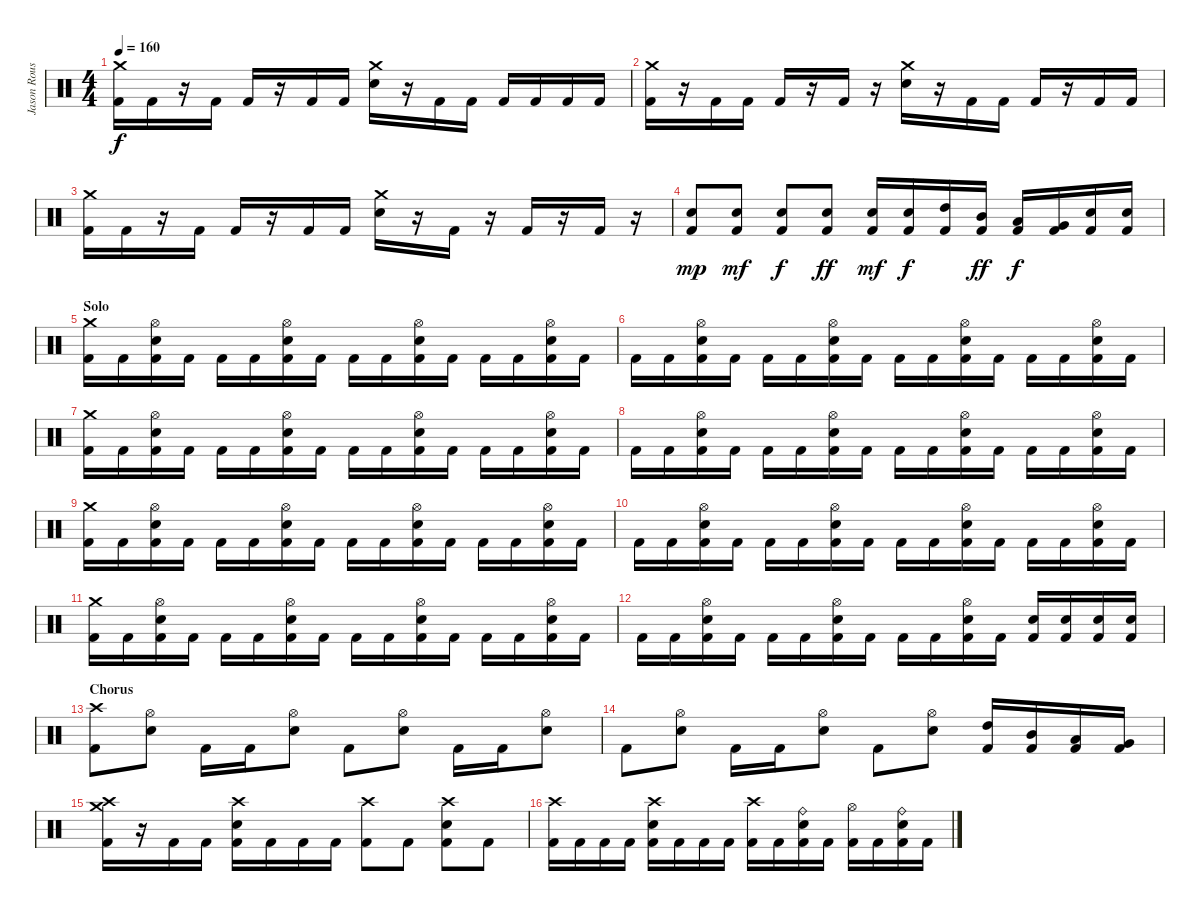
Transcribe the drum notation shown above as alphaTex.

\track ("Jason Rousseau" "Jason Rous") {instrument percussion}
\staff {score}
\articulation defaults
\ts (4 4)
\tempo 160
\clef neutral
\ks c
("Crash medium (hit)" "Kick (hit) 2").16{dy f} "Kick (hit) 2".16 r.16 "Kick (hit) 2".16 "Kick (hit) 2".16 r.16 "Kick (hit) 2".16 "Kick (hit) 2".16 ("Crash medium (hit)" "Electric Snare (hit)").16 r.16 "Kick (hit) 2".16 "Kick (hit) 2".16 "Kick (hit) 2".16 "Kick (hit) 2".16 "Kick (hit) 2".16 "Kick (hit) 2".16 |
("Crash medium (hit)" "Kick (hit) 2").16 r.16 "Kick (hit) 2".16 "Kick (hit) 2".16 "Kick (hit) 2".16 r.16 "Kick (hit) 2".16 r.16 ("Crash medium (hit)" "Electric Snare (hit)").16 r.16 "Kick (hit) 2".16 "Kick (hit) 2".16 "Kick (hit) 2".16 r.16 "Kick (hit) 2".16 "Kick (hit) 2".16 |
("Crash medium (hit)" "Kick (hit) 2").16 "Kick (hit) 2".16 r.16 "Kick (hit) 2".16 "Kick (hit) 2".16 r.16 "Kick (hit) 2".16 "Kick (hit) 2".16 ("Crash medium (hit)" "Electric Snare (hit)").16 r.16 "Kick (hit) 2".16 r.16 "Kick (hit) 2".16 r.16 "Kick (hit) 2".16 r.16 |
("Electric Snare (hit)" "Kick (hit) 2").8{dy mp} ("Electric Snare (hit)" "Kick (hit) 2").8{dy mf} ("Electric Snare (hit)" "Kick (hit) 2").8{dy f} ("Electric Snare (hit)" "Kick (hit) 2").8{dy ff} ("Electric Snare (hit)" "Kick (hit) 2").16{dy mf} ("Electric Snare (hit)" "Kick (hit) 2").16{dy f} ("High Tom (hit)" "Kick (hit) 2").16 ("Mid Tom (hit)" "Kick (hit) 2").16{dy ff} ("Low Tom (hit)" "Kick (hit) 2").16{dy f} ("Very Low Tom (hit)" "Kick (hit) 2").16 ("Electric Snare (hit)" "Kick (hit) 2").16 ("Electric Snare (hit)" "Kick (hit) 2").16 |
\section ("" "Solo")
("Crash medium (hit)" "Kick (hit) 2").16 "Kick (hit) 2".16 ("Hi-Hat (open)" "Electric Snare (hit)" "Kick (hit) 2").16 "Kick (hit) 2".16 "Kick (hit) 2".16 "Kick (hit) 2".16 ("Hi-Hat (open)" "Electric Snare (hit)" "Kick (hit) 2").16 "Kick (hit) 2".16 "Kick (hit) 2".16 "Kick (hit) 2".16 ("Hi-Hat (open)" "Electric Snare (hit)" "Kick (hit) 2").16 "Kick (hit) 2".16 "Kick (hit) 2".16 "Kick (hit) 2".16 ("Hi-Hat (open)" "Electric Snare (hit)" "Kick (hit) 2").16 "Kick (hit) 2".16 |
"Kick (hit) 2".16 "Kick (hit) 2".16 ("Hi-Hat (open)" "Electric Snare (hit)" "Kick (hit) 2").16 "Kick (hit) 2".16 "Kick (hit) 2".16 "Kick (hit) 2".16 ("Hi-Hat (open)" "Electric Snare (hit)" "Kick (hit) 2").16 "Kick (hit) 2".16 "Kick (hit) 2".16 "Kick (hit) 2".16 ("Hi-Hat (open)" "Electric Snare (hit)" "Kick (hit) 2").16 "Kick (hit) 2".16 "Kick (hit) 2".16 "Kick (hit) 2".16 ("Hi-Hat (open)" "Electric Snare (hit)" "Kick (hit) 2").16 "Kick (hit) 2".16 |
("Crash medium (hit)" "Kick (hit) 2").16 "Kick (hit) 2".16 ("Hi-Hat (open)" "Electric Snare (hit)" "Kick (hit) 2").16 "Kick (hit) 2".16 "Kick (hit) 2".16 "Kick (hit) 2".16 ("Hi-Hat (open)" "Electric Snare (hit)" "Kick (hit) 2").16 "Kick (hit) 2".16 "Kick (hit) 2".16 "Kick (hit) 2".16 ("Hi-Hat (open)" "Electric Snare (hit)" "Kick (hit) 2").16 "Kick (hit) 2".16 "Kick (hit) 2".16 "Kick (hit) 2".16 ("Hi-Hat (open)" "Electric Snare (hit)" "Kick (hit) 2").16 "Kick (hit) 2".16 |
"Kick (hit) 2".16 "Kick (hit) 2".16 ("Hi-Hat (open)" "Electric Snare (hit)" "Kick (hit) 2").16 "Kick (hit) 2".16 "Kick (hit) 2".16 "Kick (hit) 2".16 ("Hi-Hat (open)" "Electric Snare (hit)" "Kick (hit) 2").16 "Kick (hit) 2".16 "Kick (hit) 2".16 "Kick (hit) 2".16 ("Hi-Hat (open)" "Electric Snare (hit)" "Kick (hit) 2").16 "Kick (hit) 2".16 "Kick (hit) 2".16 "Kick (hit) 2".16 ("Hi-Hat (open)" "Electric Snare (hit)" "Kick (hit) 2").16 "Kick (hit) 2".16 |
("Crash medium (hit)" "Kick (hit) 2").16 "Kick (hit) 2".16 ("Hi-Hat (open)" "Electric Snare (hit)" "Kick (hit) 2").16 "Kick (hit) 2".16 "Kick (hit) 2".16 "Kick (hit) 2".16 ("Hi-Hat (open)" "Electric Snare (hit)" "Kick (hit) 2").16 "Kick (hit) 2".16 "Kick (hit) 2".16 "Kick (hit) 2".16 ("Hi-Hat (open)" "Electric Snare (hit)" "Kick (hit) 2").16 "Kick (hit) 2".16 "Kick (hit) 2".16 "Kick (hit) 2".16 ("Hi-Hat (open)" "Electric Snare (hit)" "Kick (hit) 2").16 "Kick (hit) 2".16 |
"Kick (hit) 2".16 "Kick (hit) 2".16 ("Hi-Hat (open)" "Electric Snare (hit)" "Kick (hit) 2").16 "Kick (hit) 2".16 "Kick (hit) 2".16 "Kick (hit) 2".16 ("Hi-Hat (open)" "Electric Snare (hit)" "Kick (hit) 2").16 "Kick (hit) 2".16 "Kick (hit) 2".16 "Kick (hit) 2".16 ("Hi-Hat (open)" "Electric Snare (hit)" "Kick (hit) 2").16 "Kick (hit) 2".16 "Kick (hit) 2".16 "Kick (hit) 2".16 ("Hi-Hat (open)" "Electric Snare (hit)" "Kick (hit) 2").16 "Kick (hit) 2".16 |
("Crash medium (hit)" "Kick (hit) 2").16 "Kick (hit) 2".16 ("Hi-Hat (open)" "Electric Snare (hit)" "Kick (hit) 2").16 "Kick (hit) 2".16 "Kick (hit) 2".16 "Kick (hit) 2".16 ("Hi-Hat (open)" "Electric Snare (hit)" "Kick (hit) 2").16 "Kick (hit) 2".16 "Kick (hit) 2".16 "Kick (hit) 2".16 ("Hi-Hat (open)" "Electric Snare (hit)" "Kick (hit) 2").16 "Kick (hit) 2".16 "Kick (hit) 2".16 "Kick (hit) 2".16 ("Hi-Hat (open)" "Electric Snare (hit)" "Kick (hit) 2").16 "Kick (hit) 2".16 |
"Kick (hit) 2".16 "Kick (hit) 2".16 ("Hi-Hat (open)" "Electric Snare (hit)" "Kick (hit) 2").16 "Kick (hit) 2".16 "Kick (hit) 2".16 "Kick (hit) 2".16 ("Hi-Hat (open)" "Electric Snare (hit)" "Kick (hit) 2").16 "Kick (hit) 2".16 "Kick (hit) 2".16 "Kick (hit) 2".16 ("Hi-Hat (open)" "Electric Snare (hit)" "Kick (hit) 2").16 "Kick (hit) 2".16 ("Electric Snare (hit)" "Kick (hit) 2").16 ("Electric Snare (hit)" "Kick (hit) 2").16 ("Electric Snare (hit)" "Kick (hit) 2").16 ("Electric Snare (hit)" "Kick (hit) 2").16 |
\section ("" "Chorus")
("Crash high (hit)" "Kick (hit) 2").8 ("Hi-Hat (open)" "Electric Snare (hit)").8 "Kick (hit) 2".16 "Kick (hit) 2".16 ("Hi-Hat (open)" "Electric Snare (hit)").8 "Kick (hit) 2".8 ("Hi-Hat (open)" "Electric Snare (hit)").8 "Kick (hit) 2".16 "Kick (hit) 2".16 ("Hi-Hat (open)" "Electric Snare (hit)").8 |
"Kick (hit) 2".8 ("Hi-Hat (open)" "Electric Snare (hit)").8 "Kick (hit) 2".16 "Kick (hit) 2".16 ("Hi-Hat (open)" "Electric Snare (hit)").8 "Kick (hit) 2".8 ("Hi-Hat (open)" "Electric Snare (hit)").8 ("High Tom (hit)" "Kick (hit) 2").16 ("Mid Tom (hit)" "Kick (hit) 2").16 ("Low Tom (hit)" "Kick (hit) 2").16 ("Very Low Tom (hit)" "Kick (hit) 2").16 |
("Crash high (hit)" "Crash medium (hit)" "Kick (hit) 2").16 r.16 "Kick (hit) 2".16 "Kick (hit) 2".16 ("Crash high (hit)" "Electric Snare (hit)" "Kick (hit) 2").16 "Kick (hit) 2".16 "Kick (hit) 2".16 "Kick (hit) 2".16 ("Crash high (hit)" "Kick (hit) 2").8 "Kick (hit) 2".8 ("Crash high (hit)" "Electric Snare (hit)" "Kick (hit) 2").8 "Kick (hit) 2".8 |
("Crash high (hit)" "Kick (hit) 2").16 "Kick (hit) 2".16 "Kick (hit) 2".16 "Kick (hit) 2".16 ("Crash high (hit)" "Electric Snare (hit)" "Kick (hit) 2").16 "Kick (hit) 2".16 "Kick (hit) 2".16 "Kick (hit) 2".16 ("Crash high (hit)" "Kick (hit) 2").16 "Kick (hit) 2".16 ("Ride (bell)" "Electric Snare (hit)" "Kick (hit) 2").16 "Kick (hit) 2".16 ("Hi-Hat (open)" "Kick (hit) 2").16 "Kick (hit) 2".16 ("Ride (bell)" "Electric Snare (hit)" "Kick (hit) 2").16 "Kick (hit) 2".16
